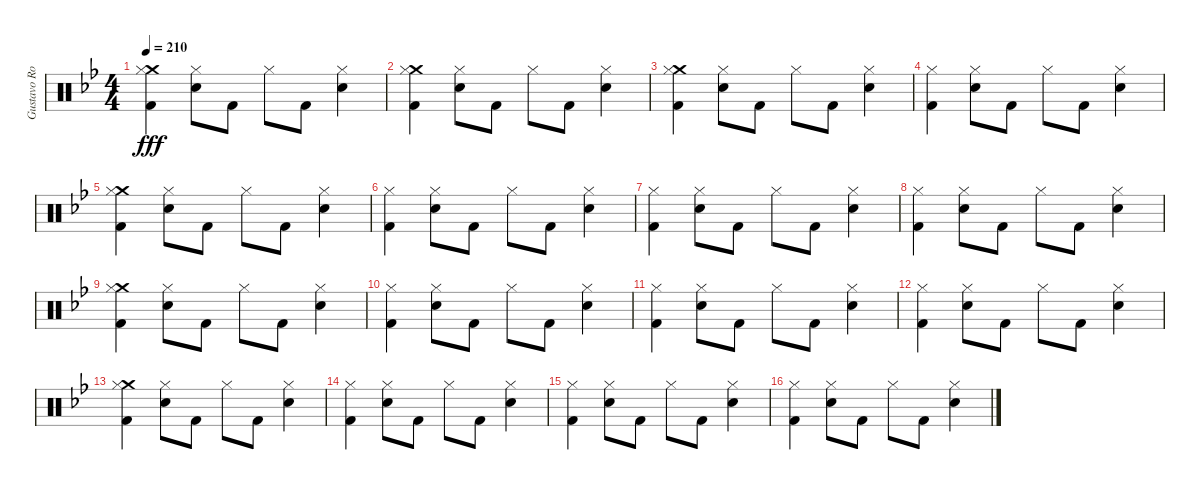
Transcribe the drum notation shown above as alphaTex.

\track ("Gustavo Rowek" "Gustavo Ro") {instrument percussion}
\staff {score}
\articulation defaults
\ts (4 4)
\tempo 210
\clef neutral
\ks gminor
("Crash medium (hit)" "Hi-Hat (closed)" "Kick (hit) 2").4{dy fff} ("Hi-Hat (closed)" "Snare (hit) 2").8 "Kick (hit) 2".8 "Hi-Hat (closed)".8 "Kick (hit) 2".8 ("Hi-Hat (closed)" "Snare (hit) 2").4 |
("Crash medium (hit)" "Hi-Hat (closed)" "Kick (hit) 2").4 ("Hi-Hat (closed)" "Snare (hit) 2").8 "Kick (hit) 2".8 "Hi-Hat (closed)".8 "Kick (hit) 2".8 ("Hi-Hat (closed)" "Snare (hit) 2").4 |
("Crash medium (hit)" "Hi-Hat (closed)" "Kick (hit) 2").4 ("Hi-Hat (closed)" "Snare (hit) 2").8 "Kick (hit) 2".8 "Hi-Hat (closed)".8 "Kick (hit) 2".8 ("Hi-Hat (closed)" "Snare (hit) 2").4 |
("Hi-Hat (closed)" "Kick (hit) 2").4 ("Hi-Hat (closed)" "Snare (hit) 2").8 "Kick (hit) 2".8 "Hi-Hat (closed)".8 "Kick (hit) 2".8 ("Hi-Hat (closed)" "Snare (hit) 2").4 |
("Crash medium (hit)" "Hi-Hat (closed)" "Kick (hit) 2").4 ("Hi-Hat (closed)" "Snare (hit) 2").8 "Kick (hit) 2".8 "Hi-Hat (closed)".8 "Kick (hit) 2".8 ("Hi-Hat (closed)" "Snare (hit) 2").4 |
("Hi-Hat (closed)" "Kick (hit) 2").4 ("Hi-Hat (closed)" "Snare (hit) 2").8 "Kick (hit) 2".8 "Hi-Hat (closed)".8 "Kick (hit) 2".8 ("Hi-Hat (closed)" "Snare (hit) 2").4 |
("Hi-Hat (closed)" "Kick (hit) 2").4 ("Hi-Hat (closed)" "Snare (hit) 2").8 "Kick (hit) 2".8 "Hi-Hat (closed)".8 "Kick (hit) 2".8 ("Hi-Hat (closed)" "Snare (hit) 2").4 |
("Hi-Hat (closed)" "Kick (hit) 2").4 ("Hi-Hat (closed)" "Snare (hit) 2").8 "Kick (hit) 2".8 "Hi-Hat (closed)".8 "Kick (hit) 2".8 ("Hi-Hat (closed)" "Snare (hit) 2").4 |
("Crash medium (hit)" "Hi-Hat (closed)" "Kick (hit) 2").4 ("Hi-Hat (closed)" "Snare (hit) 2").8 "Kick (hit) 2".8 "Hi-Hat (closed)".8 "Kick (hit) 2".8 ("Hi-Hat (closed)" "Snare (hit) 2").4 |
("Hi-Hat (closed)" "Kick (hit) 2").4 ("Hi-Hat (closed)" "Snare (hit) 2").8 "Kick (hit) 2".8 "Hi-Hat (closed)".8 "Kick (hit) 2".8 ("Hi-Hat (closed)" "Snare (hit) 2").4 |
("Hi-Hat (closed)" "Kick (hit) 2").4 ("Hi-Hat (closed)" "Snare (hit) 2").8 "Kick (hit) 2".8 "Hi-Hat (closed)".8 "Kick (hit) 2".8 ("Hi-Hat (closed)" "Snare (hit) 2").4 |
("Hi-Hat (closed)" "Kick (hit) 2").4 ("Hi-Hat (closed)" "Snare (hit) 2").8 "Kick (hit) 2".8 "Hi-Hat (closed)".8 "Kick (hit) 2".8 ("Hi-Hat (closed)" "Snare (hit) 2").4 |
("Crash medium (hit)" "Hi-Hat (closed)" "Kick (hit) 2").4 ("Hi-Hat (closed)" "Snare (hit) 2").8 "Kick (hit) 2".8 "Hi-Hat (closed)".8 "Kick (hit) 2".8 ("Hi-Hat (closed)" "Snare (hit) 2").4 |
("Hi-Hat (closed)" "Kick (hit) 2").4 ("Hi-Hat (closed)" "Snare (hit) 2").8 "Kick (hit) 2".8 "Hi-Hat (closed)".8 "Kick (hit) 2".8 ("Hi-Hat (closed)" "Snare (hit) 2").4 |
("Hi-Hat (closed)" "Kick (hit) 2").4 ("Hi-Hat (closed)" "Snare (hit) 2").8 "Kick (hit) 2".8 "Hi-Hat (closed)".8 "Kick (hit) 2".8 ("Hi-Hat (closed)" "Snare (hit) 2").4 |
("Hi-Hat (closed)" "Kick (hit) 2").4 ("Hi-Hat (closed)" "Snare (hit) 2").8 "Kick (hit) 2".8 "Hi-Hat (closed)".8 "Kick (hit) 2".8 ("Hi-Hat (closed)" "Snare (hit) 2").4
